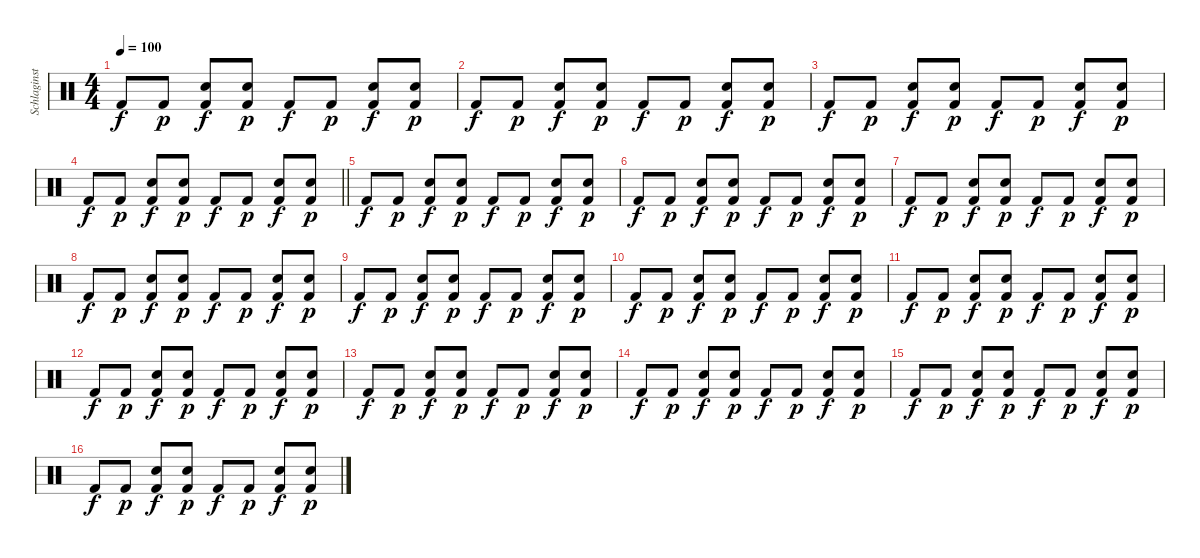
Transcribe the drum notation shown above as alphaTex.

\track ("Schlaginstrumente - Auswahl" "Schlaginst") {instrument percussion}
\staff {score}
\articulation defaults
\ts (4 4)
\tempo 100
\clef neutral
\ks c "Kick (hit) 2".8{dy f} "Kick (hit) 2".8{dy p}
("Electric Snare (hit)" "Kick (hit) 2").8{dy f} ("Electric Snare (hit)" "Kick (hit) 2").8{dy p} "Kick (hit) 2".8{dy f} "Kick (hit) 2".8{dy p} ("Electric Snare (hit)" "Kick (hit) 2").8{dy f} ("Electric Snare (hit)" "Kick (hit) 2").8{dy p} |
"Kick (hit) 2".8{dy f} "Kick (hit) 2".8{dy p} ("Electric Snare (hit)" "Kick (hit) 2").8{dy f} ("Electric Snare (hit)" "Kick (hit) 2").8{dy p} "Kick (hit) 2".8{dy f} "Kick (hit) 2".8{dy p} ("Electric Snare (hit)" "Kick (hit) 2").8{dy f} ("Electric Snare (hit)" "Kick (hit) 2").8{dy p} |
"Kick (hit) 2".8{dy f} "Kick (hit) 2".8{dy p} ("Electric Snare (hit)" "Kick (hit) 2").8{dy f} ("Electric Snare (hit)" "Kick (hit) 2").8{dy p} "Kick (hit) 2".8{dy f} "Kick (hit) 2".8{dy p} ("Electric Snare (hit)" "Kick (hit) 2").8{dy f} ("Electric Snare (hit)" "Kick (hit) 2").8{dy p} |
\barLineRight lightlight "Kick (hit) 2".8{dy f} "Kick (hit) 2".8{dy p}
("Electric Snare (hit)" "Kick (hit) 2").8{dy f} ("Electric Snare (hit)" "Kick (hit) 2").8{dy p} "Kick (hit) 2".8{dy f} "Kick (hit) 2".8{dy p} ("Electric Snare (hit)" "Kick (hit) 2").8{dy f} ("Electric Snare (hit)" "Kick (hit) 2").8{dy p} |
"Kick (hit) 2".8{dy f} "Kick (hit) 2".8{dy p} ("Electric Snare (hit)" "Kick (hit) 2").8{dy f} ("Electric Snare (hit)" "Kick (hit) 2").8{dy p} "Kick (hit) 2".8{dy f} "Kick (hit) 2".8{dy p} ("Electric Snare (hit)" "Kick (hit) 2").8{dy f} ("Electric Snare (hit)" "Kick (hit) 2").8{dy p} |
"Kick (hit) 2".8{dy f} "Kick (hit) 2".8{dy p} ("Electric Snare (hit)" "Kick (hit) 2").8{dy f} ("Electric Snare (hit)" "Kick (hit) 2").8{dy p} "Kick (hit) 2".8{dy f} "Kick (hit) 2".8{dy p} ("Electric Snare (hit)" "Kick (hit) 2").8{dy f} ("Electric Snare (hit)" "Kick (hit) 2").8{dy p} |
"Kick (hit) 2".8{dy f} "Kick (hit) 2".8{dy p} ("Electric Snare (hit)" "Kick (hit) 2").8{dy f} ("Electric Snare (hit)" "Kick (hit) 2").8{dy p} "Kick (hit) 2".8{dy f} "Kick (hit) 2".8{dy p} ("Electric Snare (hit)" "Kick (hit) 2").8{dy f} ("Electric Snare (hit)" "Kick (hit) 2").8{dy p} |
"Kick (hit) 2".8{dy f} "Kick (hit) 2".8{dy p} ("Electric Snare (hit)" "Kick (hit) 2").8{dy f} ("Electric Snare (hit)" "Kick (hit) 2").8{dy p} "Kick (hit) 2".8{dy f} "Kick (hit) 2".8{dy p} ("Electric Snare (hit)" "Kick (hit) 2").8{dy f} ("Electric Snare (hit)" "Kick (hit) 2").8{dy p} |
"Kick (hit) 2".8{dy f} "Kick (hit) 2".8{dy p} ("Electric Snare (hit)" "Kick (hit) 2").8{dy f} ("Electric Snare (hit)" "Kick (hit) 2").8{dy p} "Kick (hit) 2".8{dy f} "Kick (hit) 2".8{dy p} ("Electric Snare (hit)" "Kick (hit) 2").8{dy f} ("Electric Snare (hit)" "Kick (hit) 2").8{dy p} |
"Kick (hit) 2".8{dy f} "Kick (hit) 2".8{dy p} ("Electric Snare (hit)" "Kick (hit) 2").8{dy f} ("Electric Snare (hit)" "Kick (hit) 2").8{dy p} "Kick (hit) 2".8{dy f} "Kick (hit) 2".8{dy p} ("Electric Snare (hit)" "Kick (hit) 2").8{dy f} ("Electric Snare (hit)" "Kick (hit) 2").8{dy p} |
"Kick (hit) 2".8{dy f} "Kick (hit) 2".8{dy p} ("Electric Snare (hit)" "Kick (hit) 2").8{dy f} ("Electric Snare (hit)" "Kick (hit) 2").8{dy p} "Kick (hit) 2".8{dy f} "Kick (hit) 2".8{dy p} ("Electric Snare (hit)" "Kick (hit) 2").8{dy f} ("Electric Snare (hit)" "Kick (hit) 2").8{dy p} |
"Kick (hit) 2".8{dy f} "Kick (hit) 2".8{dy p} ("Electric Snare (hit)" "Kick (hit) 2").8{dy f} ("Electric Snare (hit)" "Kick (hit) 2").8{dy p} "Kick (hit) 2".8{dy f} "Kick (hit) 2".8{dy p} ("Electric Snare (hit)" "Kick (hit) 2").8{dy f} ("Electric Snare (hit)" "Kick (hit) 2").8{dy p} |
"Kick (hit) 2".8{dy f} "Kick (hit) 2".8{dy p} ("Electric Snare (hit)" "Kick (hit) 2").8{dy f} ("Electric Snare (hit)" "Kick (hit) 2").8{dy p} "Kick (hit) 2".8{dy f} "Kick (hit) 2".8{dy p} ("Electric Snare (hit)" "Kick (hit) 2").8{dy f} ("Electric Snare (hit)" "Kick (hit) 2").8{dy p} |
"Kick (hit) 2".8{dy f} "Kick (hit) 2".8{dy p} ("Electric Snare (hit)" "Kick (hit) 2").8{dy f} ("Electric Snare (hit)" "Kick (hit) 2").8{dy p} "Kick (hit) 2".8{dy f} "Kick (hit) 2".8{dy p} ("Electric Snare (hit)" "Kick (hit) 2").8{dy f} ("Electric Snare (hit)" "Kick (hit) 2").8{dy p} |
"Kick (hit) 2".8{dy f} "Kick (hit) 2".8{dy p} ("Electric Snare (hit)" "Kick (hit) 2").8{dy f} ("Electric Snare (hit)" "Kick (hit) 2").8{dy p} "Kick (hit) 2".8{dy f} "Kick (hit) 2".8{dy p} ("Electric Snare (hit)" "Kick (hit) 2").8{dy f} ("Electric Snare (hit)" "Kick (hit) 2").8{dy p} |
"Kick (hit) 2".8{dy f} "Kick (hit) 2".8{dy p} ("Electric Snare (hit)" "Kick (hit) 2").8{dy f} ("Electric Snare (hit)" "Kick (hit) 2").8{dy p} "Kick (hit) 2".8{dy f} "Kick (hit) 2".8{dy p} ("Electric Snare (hit)" "Kick (hit) 2").8{dy f} ("Electric Snare (hit)" "Kick (hit) 2").8{dy p}
